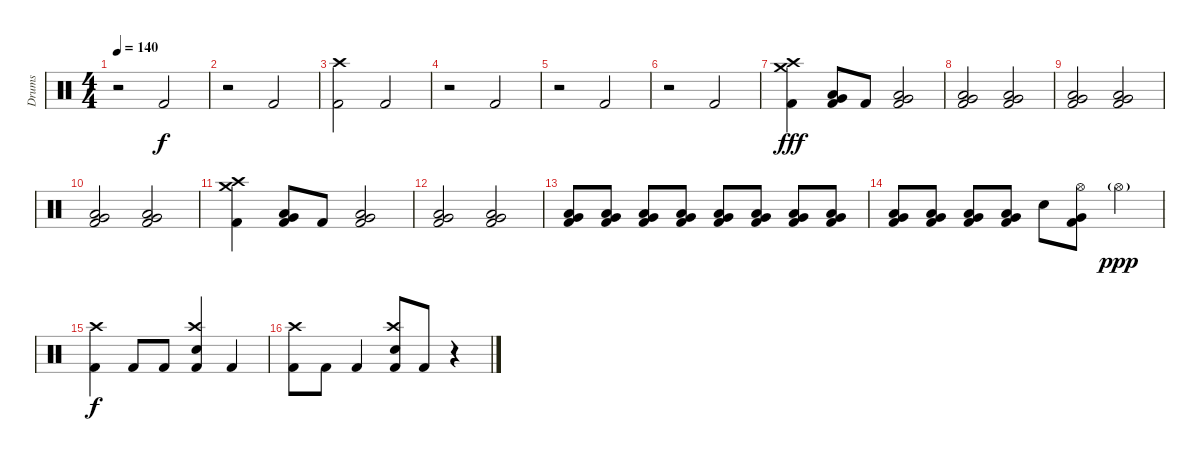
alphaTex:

\track ("Drums" "Drums") {instrument percussion}
\staff {score}
\articulation defaults
\ts (4 4)
\tempo 140
\clef neutral
\ks c
r.2{dy f} "Kick (hit) 2".2 |
r.2 "Kick (hit) 2".2 |
("Crash high (hit)" "Kick (hit) 2").2 "Kick (hit) 2".2 |
r.2 "Kick (hit) 2".2 |
r.2 "Kick (hit) 2".2 |
r.2 "Kick (hit) 2".2 |
("Crash high (hit)" "Crash medium (hit)" "Kick (hit) 2").4{dy fff} ("Very Low Tom (hit)" "Low Floor Tom (hit)" "Kick (hit) 2").8 "Kick (hit) 2".8 ("Very Low Tom (hit)" "Low Floor Tom (hit)" "Kick (hit) 2").2 |
("Very Low Tom (hit)" "Low Floor Tom (hit)" "Kick (hit) 2").2 ("Very Low Tom (hit)" "Low Floor Tom (hit)" "Kick (hit) 2").2 |
("Very Low Tom (hit)" "Low Floor Tom (hit)" "Kick (hit) 2").2 ("Very Low Tom (hit)" "Low Floor Tom (hit)" "Kick (hit) 2").2 |
("Very Low Tom (hit)" "Low Floor Tom (hit)" "Kick (hit) 2").2 ("Very Low Tom (hit)" "Low Floor Tom (hit)" "Kick (hit) 2").2 |
("Crash high (hit)" "Crash medium (hit)" "Kick (hit) 2").4 ("Very Low Tom (hit)" "Low Floor Tom (hit)" "Kick (hit) 2").8 "Kick (hit) 2".8 ("Very Low Tom (hit)" "Low Floor Tom (hit)" "Kick (hit) 2").2 |
("Very Low Tom (hit)" "Low Floor Tom (hit)" "Kick (hit) 2").2 ("Very Low Tom (hit)" "Low Floor Tom (hit)" "Kick (hit) 2").2 |
("Very Low Tom (hit)" "Low Floor Tom (hit)" "Kick (hit) 2").8 ("Very Low Tom (hit)" "Low Floor Tom (hit)" "Kick (hit) 2").8 ("Very Low Tom (hit)" "Low Floor Tom (hit)" "Kick (hit) 2").8 ("Very Low Tom (hit)" "Low Floor Tom (hit)" "Kick (hit) 2").8 ("Very Low Tom (hit)" "Low Floor Tom (hit)" "Kick (hit) 2").8 ("Very Low Tom (hit)" "Low Floor Tom (hit)" "Kick (hit) 2").8 ("Very Low Tom (hit)" "Low Floor Tom (hit)" "Kick (hit) 2").8 ("Very Low Tom (hit)" "Low Floor Tom (hit)" "Kick (hit) 2").8 |
("Very Low Tom (hit)" "Low Floor Tom (hit)" "Kick (hit) 2").8 ("Very Low Tom (hit)" "Low Floor Tom (hit)" "Kick (hit) 2").8 ("Very Low Tom (hit)" "Low Floor Tom (hit)" "Kick (hit) 2").8 ("Very Low Tom (hit)" "Low Floor Tom (hit)" "Kick (hit) 2").8 "Electric Snare (hit)".8 ("Hi-Hat (open)" "Very Low Tom (hit)" "Kick (hit) 2").8 "Hi-Hat (open)"{g}.4{dy ppp} |
("Crash high (hit)" "Kick (hit) 2").4{dy f} "Kick (hit) 2".8 "Kick (hit) 2".8 ("Crash high (hit)" "Electric Snare (hit)" "Kick (hit) 2").4 "Kick (hit) 2".4 |
("Crash high (hit)" "Kick (hit) 2").8 "Kick (hit) 2".8 "Kick (hit) 2".4 ("Crash high (hit)" "Electric Snare (hit)" "Kick (hit) 2").8 "Kick (hit) 2".8 r.4
